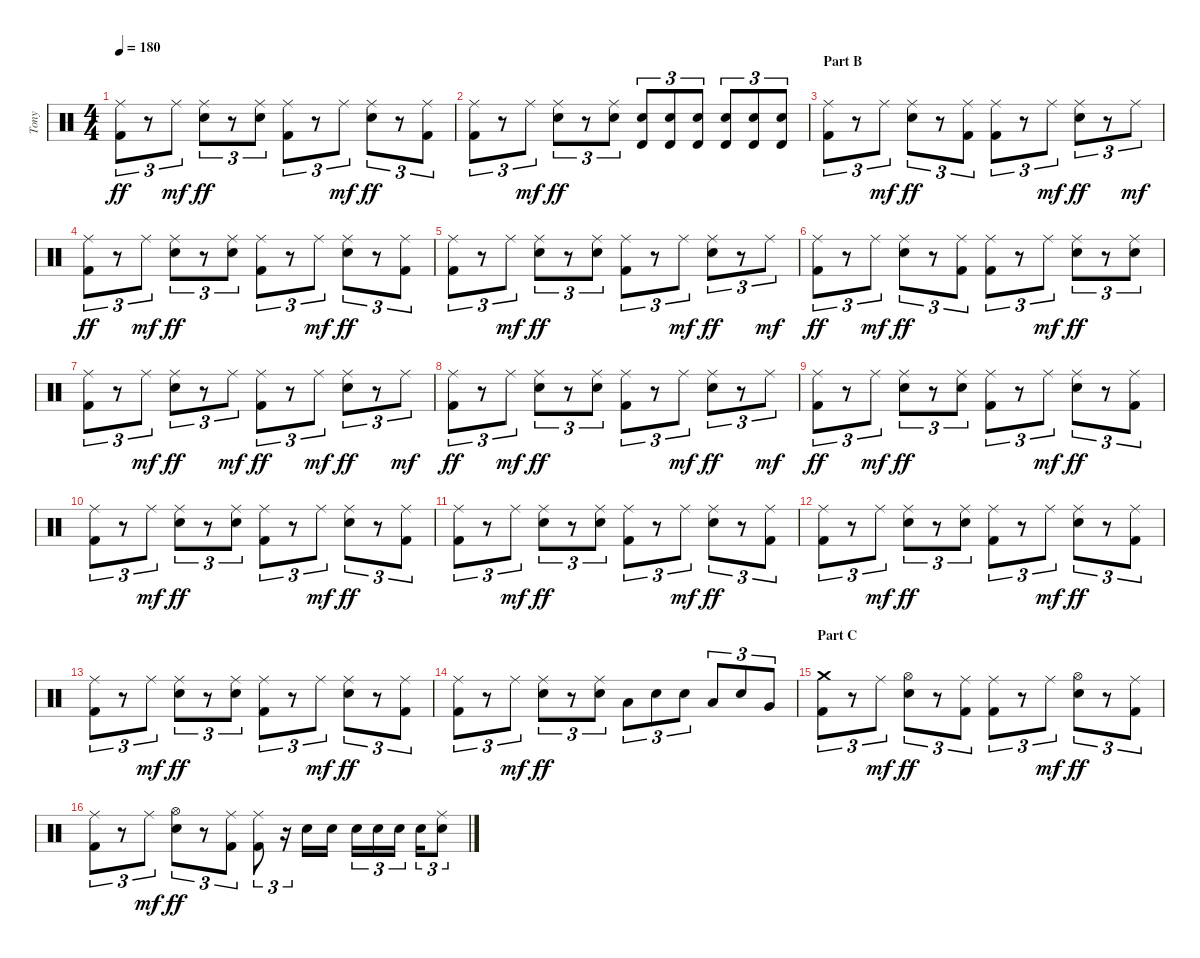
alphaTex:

\track ("Tony" "Tony") {instrument percussion}
\staff {score}
\articulation defaults
\ts (4 4)
\tempo 180
\clef neutral
\ks c
("Ride (middle)" "Kick (hit) 2").8{tu (3 2) dy ff} r.8{tu (3 2)} "Ride (middle)".8{tu (3 2) dy mf} ("Ride (middle)" "Electric Snare (hit)").8{tu (3 2) dy ff} r.8{tu (3 2)} ("Ride (middle)" "Electric Snare (hit)").8{tu (3 2)} ("Ride (middle)" "Kick (hit) 2").8{tu (3 2)} r.8{tu (3 2)} "Ride (middle)".8{tu (3 2) dy mf} ("Ride (middle)" "Electric Snare (hit)").8{tu (3 2) dy ff} r.8{tu (3 2)} ("Ride (middle)" "Kick (hit) 2").8{tu (3 2)} |
("Ride (middle)" "Kick (hit) 2").8{tu (3 2)} r.8{tu (3 2)} "Ride (middle)".8{tu (3 2) dy mf} ("Ride (middle)" "Electric Snare (hit)").8{tu (3 2) dy ff} r.8{tu (3 2)} ("Ride (middle)" "Electric Snare (hit)").8{tu (3 2)} ("Timbale high (hit)" "Electric Snare (hit)").8{tu (3 2)} ("Timbale high (hit)" "Electric Snare (hit)").8{tu (3 2)} ("Timbale high (hit)" "Electric Snare (hit)").8{tu (3 2)} ("Timbale high (hit)" "Electric Snare (hit)").8{tu (3 2)} ("Timbale high (hit)" "Electric Snare (hit)").8{tu (3 2)} ("Timbale high (hit)" "Electric Snare (hit)").8{tu (3 2)} |
\section ("" "Part B")
("Ride (middle)" "Kick (hit) 2").8{tu (3 2)} r.8{tu (3 2)} "Ride (middle)".8{tu (3 2) dy mf} ("Ride (middle)" "Electric Snare (hit)").8{tu (3 2) dy ff} r.8{tu (3 2)} ("Ride (middle)" "Kick (hit) 2").8{tu (3 2)} ("Ride (middle)" "Kick (hit) 2").8{tu (3 2)} r.8{tu (3 2)} "Ride (middle)".8{tu (3 2) dy mf} ("Ride (middle)" "Electric Snare (hit)").8{tu (3 2) dy ff} r.8{tu (3 2)} "Ride (middle)".8{tu (3 2) dy mf} |
("Ride (middle)" "Kick (hit) 2").8{tu (3 2) dy ff} r.8{tu (3 2)} "Ride (middle)".8{tu (3 2) dy mf} ("Ride (middle)" "Electric Snare (hit)").8{tu (3 2) dy ff} r.8{tu (3 2)} ("Ride (middle)" "Electric Snare (hit)").8{tu (3 2)} ("Ride (middle)" "Kick (hit) 2").8{tu (3 2)} r.8{tu (3 2)} "Ride (middle)".8{tu (3 2) dy mf} ("Ride (middle)" "Electric Snare (hit)").8{tu (3 2) dy ff} r.8{tu (3 2)} ("Ride (middle)" "Kick (hit) 2").8{tu (3 2)} |
("Ride (middle)" "Kick (hit) 2").8{tu (3 2)} r.8{tu (3 2)} "Ride (middle)".8{tu (3 2) dy mf} ("Ride (middle)" "Electric Snare (hit)").8{tu (3 2) dy ff} r.8{tu (3 2)} ("Ride (middle)" "Electric Snare (hit)").8{tu (3 2)} ("Ride (middle)" "Kick (hit) 2").8{tu (3 2)} r.8{tu (3 2)} "Ride (middle)".8{tu (3 2) dy mf} ("Ride (middle)" "Electric Snare (hit)").8{tu (3 2) dy ff} r.8{tu (3 2)} "Ride (middle)".8{tu (3 2) dy mf} |
("Ride (middle)" "Kick (hit) 2").8{tu (3 2) dy ff} r.8{tu (3 2)} "Ride (middle)".8{tu (3 2) dy mf} ("Ride (middle)" "Electric Snare (hit)").8{tu (3 2) dy ff} r.8{tu (3 2)} ("Ride (middle)" "Kick (hit) 2").8{tu (3 2)} ("Ride (middle)" "Kick (hit) 2").8{tu (3 2)} r.8{tu (3 2)} "Ride (middle)".8{tu (3 2) dy mf} ("Ride (middle)" "Electric Snare (hit)").8{tu (3 2) dy ff} r.8{tu (3 2)} ("Ride (middle)" "Electric Snare (hit)").8{tu (3 2)} |
("Ride (middle)" "Kick (hit) 2").8{tu (3 2)} r.8{tu (3 2)} "Ride (middle)".8{tu (3 2) dy mf} ("Ride (middle)" "Electric Snare (hit)").8{tu (3 2) dy ff} r.8{tu (3 2)} "Ride (middle)".8{tu (3 2) dy mf} ("Ride (middle)" "Kick (hit) 2").8{tu (3 2) dy ff} r.8{tu (3 2)} "Ride (middle)".8{tu (3 2) dy mf} ("Ride (middle)" "Electric Snare (hit)").8{tu (3 2) dy ff} r.8{tu (3 2)} "Ride (middle)".8{tu (3 2) dy mf} |
("Ride (middle)" "Kick (hit) 2").8{tu (3 2) dy ff} r.8{tu (3 2)} "Ride (middle)".8{tu (3 2) dy mf} ("Ride (middle)" "Electric Snare (hit)").8{tu (3 2) dy ff} r.8{tu (3 2)} ("Ride (middle)" "Electric Snare (hit)").8{tu (3 2)} ("Ride (middle)" "Kick (hit) 2").8{tu (3 2)} r.8{tu (3 2)} "Ride (middle)".8{tu (3 2) dy mf} ("Ride (middle)" "Electric Snare (hit)").8{tu (3 2) dy ff} r.8{tu (3 2)} "Ride (middle)".8{tu (3 2) dy mf} |
("Ride (middle)" "Kick (hit) 2").8{tu (3 2) dy ff} r.8{tu (3 2)} "Ride (middle)".8{tu (3 2) dy mf} ("Ride (middle)" "Electric Snare (hit)").8{tu (3 2) dy ff} r.8{tu (3 2)} ("Ride (middle)" "Electric Snare (hit)").8{tu (3 2)} ("Ride (middle)" "Kick (hit) 2").8{tu (3 2)} r.8{tu (3 2)} "Ride (middle)".8{tu (3 2) dy mf} ("Ride (middle)" "Electric Snare (hit)").8{tu (3 2) dy ff} r.8{tu (3 2)} ("Ride (middle)" "Kick (hit) 2").8{tu (3 2)} |
("Ride (middle)" "Kick (hit) 2").8{tu (3 2)} r.8{tu (3 2)} "Ride (middle)".8{tu (3 2) dy mf} ("Ride (middle)" "Electric Snare (hit)").8{tu (3 2) dy ff} r.8{tu (3 2)} ("Ride (middle)" "Electric Snare (hit)").8{tu (3 2)} ("Ride (middle)" "Kick (hit) 2").8{tu (3 2)} r.8{tu (3 2)} "Ride (middle)".8{tu (3 2) dy mf} ("Ride (middle)" "Electric Snare (hit)").8{tu (3 2) dy ff} r.8{tu (3 2)} ("Ride (middle)" "Kick (hit) 2").8{tu (3 2)} |
("Ride (middle)" "Kick (hit) 2").8{tu (3 2)} r.8{tu (3 2)} "Ride (middle)".8{tu (3 2) dy mf} ("Ride (middle)" "Electric Snare (hit)").8{tu (3 2) dy ff} r.8{tu (3 2)} ("Ride (middle)" "Electric Snare (hit)").8{tu (3 2)} ("Ride (middle)" "Kick (hit) 2").8{tu (3 2)} r.8{tu (3 2)} "Ride (middle)".8{tu (3 2) dy mf} ("Ride (middle)" "Electric Snare (hit)").8{tu (3 2) dy ff} r.8{tu (3 2)} ("Ride (middle)" "Kick (hit) 2").8{tu (3 2)} |
("Ride (middle)" "Kick (hit) 2").8{tu (3 2)} r.8{tu (3 2)} "Ride (middle)".8{tu (3 2) dy mf} ("Ride (middle)" "Electric Snare (hit)").8{tu (3 2) dy ff} r.8{tu (3 2)} ("Ride (middle)" "Electric Snare (hit)").8{tu (3 2)} ("Ride (middle)" "Kick (hit) 2").8{tu (3 2)} r.8{tu (3 2)} "Ride (middle)".8{tu (3 2) dy mf} ("Ride (middle)" "Electric Snare (hit)").8{tu (3 2) dy ff} r.8{tu (3 2)} ("Ride (middle)" "Kick (hit) 2").8{tu (3 2)} |
("Ride (middle)" "Kick (hit) 2").8{tu (3 2)} r.8{tu (3 2)} "Ride (middle)".8{tu (3 2) dy mf} ("Ride (middle)" "Electric Snare (hit)").8{tu (3 2) dy ff} r.8{tu (3 2)} ("Ride (middle)" "Electric Snare (hit)").8{tu (3 2)} ("Ride (middle)" "Kick (hit) 2").8{tu (3 2)} r.8{tu (3 2)} "Ride (middle)".8{tu (3 2) dy mf} ("Ride (middle)" "Electric Snare (hit)").8{tu (3 2) dy ff} r.8{tu (3 2)} ("Ride (middle)" "Kick (hit) 2").8{tu (3 2)} |
("Ride (middle)" "Kick (hit) 2").8{tu (3 2)} r.8{tu (3 2)} "Ride (middle)".8{tu (3 2) dy mf} ("Ride (middle)" "Electric Snare (hit)").8{tu (3 2) dy ff} r.8{tu (3 2)} ("Ride (middle)" "Electric Snare (hit)").8{tu (3 2)} "Low Floor Tom (hit)".8{tu (3 2)} "Electric Snare (hit)".8{tu (3 2)} "Electric Snare (hit)".8{tu (3 2)} "Low Floor Tom (hit)".8{tu (3 2)} "Electric Snare (hit)".8{tu (3 2)} "Very Low Tom (hit)".8{tu (3 2)} |
\section ("" "Part C")
("Crash medium (hit)" "Kick (hit) 2").8{tu (3 2)} r.8{tu (3 2)} "Ride (middle)".8{tu (3 2) dy mf} ("Hi-Hat (open)" "Electric Snare (hit)").8{tu (3 2) dy ff} r.8{tu (3 2)} ("Ride (middle)" "Kick (hit) 2").8{tu (3 2)} ("Ride (middle)" "Kick (hit) 2").8{tu (3 2)} r.8{tu (3 2)} "Ride (middle)".8{tu (3 2) dy mf} ("Hi-Hat (open)" "Electric Snare (hit)").8{tu (3 2) dy ff} r.8{tu (3 2)} ("Ride (middle)" "Kick (hit) 2").8{tu (3 2)} |
("Ride (middle)" "Kick (hit) 2").8{tu (3 2)} r.8{tu (3 2)} "Ride (middle)".8{tu (3 2) dy mf} ("Hi-Hat (open)" "Electric Snare (hit)").8{tu (3 2) dy ff} r.8{tu (3 2)} ("Ride (middle)" "Kick (hit) 2").8{tu (3 2)} ("Ride (middle)" "Kick (hit) 2").8{tu (3 2)} r.16{tu (3 2)} "Electric Snare (hit)".16 "Electric Snare (hit)".16 "Electric Snare (hit)".16{tu (3 2)} "Electric Snare (hit)".16{tu (3 2)} "Electric Snare (hit)".16{tu (3 2)} "Electric Snare (hit)".16{tu (3 2)} ("Ride (middle)" "Electric Snare (hit)").8{tu (3 2)}
